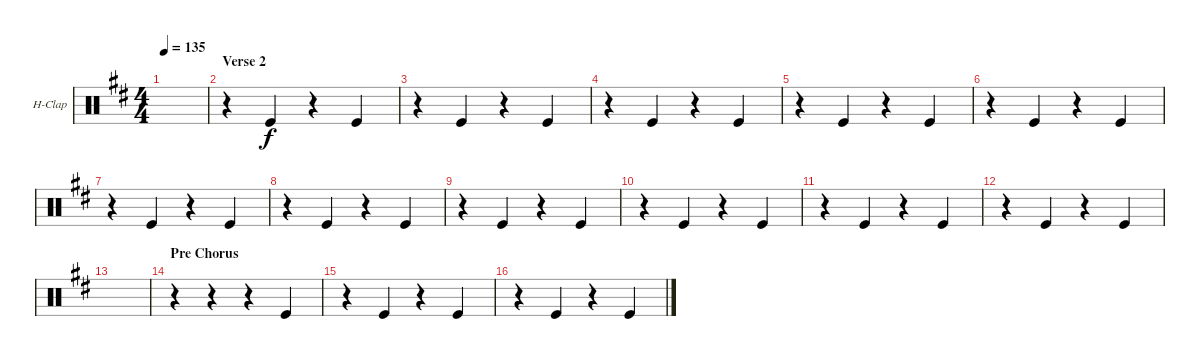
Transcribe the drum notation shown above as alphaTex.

\defaultSystemsLayout 4
\bracketExtendMode groupsimilarinstruments
\firstSystemTrackNameOrientation horizontal
\otherSystemsTrackNameOrientation horizontal
\track ("Hand Clap" "H-Clap") {instrument percussion}
\staff {score}
\articulation defaults
\ts (4 4)
\tempo 135
\clef neutral
\scale
0.333333
\ks bminor
|
\section ("" "Verse 2")
\scale
0.333333 r.4 "Kick (hit)".4 r.4 "Kick (hit)".4 |
\scale
0.333333 r.4 "Kick (hit)".4 r.4 "Kick (hit)".4 |
\scale
0.333333 r.4 "Kick (hit)".4 r.4 "Kick (hit)".4 |
\scale
0.333333 r.4 "Kick (hit)".4 r.4 "Kick (hit)".4 |
\scale
0.333333 r.4 "Kick (hit)".4 r.4 "Kick (hit)".4 |
\scale
0.333333 r.4 "Kick (hit)".4 r.4 "Kick (hit)".4 |
r.4 "Kick (hit)".4 r.4 "Kick (hit)".4 |
r.4 "Kick (hit)".4 r.4 "Kick (hit)".4 |
r.4 "Kick (hit)".4 r.4 "Kick (hit)".4 |
r.4 "Kick (hit)".4 r.4 "Kick (hit)".4 |
r.4 "Kick (hit)".4 r.4 "Kick (hit)".4 |
|
\section ("" "Pre Chorus")
r.4 r.4 r.4 "Kick (hit)".4 |
r.4 "Kick (hit)".4 r.4 "Kick (hit)".4 |
r.4 "Kick (hit)".4 r.4 "Kick (hit)".4
